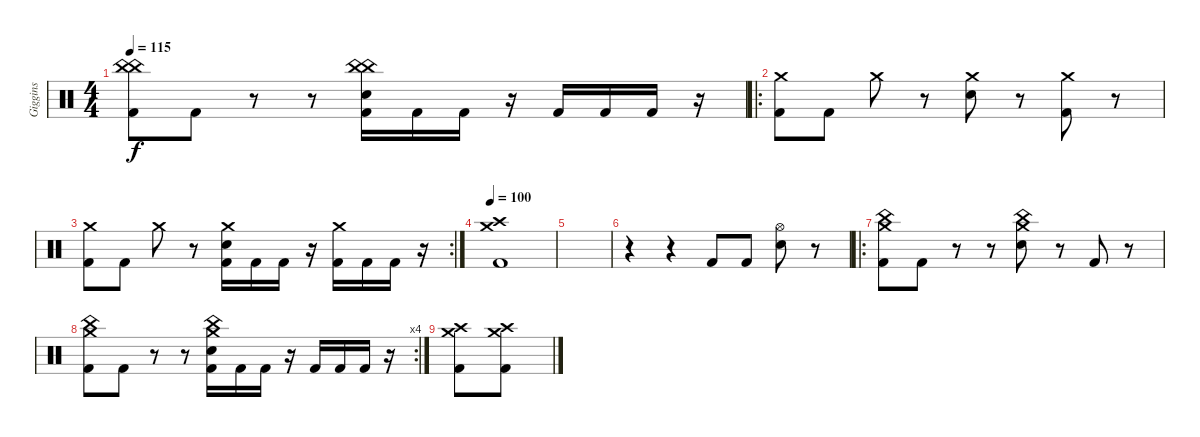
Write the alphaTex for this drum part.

\track ("Giggins" "Giggins") {instrument percussion}
\staff {score}
\articulation defaults
\ts (4 4)
\tempo 115
\clef neutral
\ks c
("China (hit)" "China (hit)" "Kick (hit) 2").8{dy f} "Kick (hit) 2".8 r.8 r.8 ("China (hit)" "China (hit)" "Snare (hit) 2" "Kick (hit) 2").16 "Kick (hit) 2".16 "Kick (hit) 2".16 r.16 "Kick (hit) 2".16 "Kick (hit) 2".16 "Kick (hit) 2".16 r.16 |
\ro
("Crash medium (hit)" "Kick (hit) 2").8 "Kick (hit) 2".8 "Crash medium (hit)".8 r.8 ("Crash medium (hit)" "Snare (hit) 2").8 r.8 ("Crash medium (hit)" "Kick (hit) 2").8 r.8 |
\rc 2
("Crash medium (hit)" "Kick (hit) 2").8 "Kick (hit) 2".8 "Crash medium (hit)".8 r.8 ("Crash medium (hit)" "Snare (hit) 2" "Kick (hit) 2").16 "Kick (hit) 2".16 "Kick (hit) 2".16 r.16 ("Crash medium (hit)" "Kick (hit) 2").16 "Kick (hit) 2".16 "Kick (hit) 2".16 r.16 |
\tempo 100
("Crash high (hit)" "Crash medium (hit)" "Kick (hit) 2").1 |
|
r.4 r.4 "Kick (hit) 2".8 "Kick (hit) 2".8 ("Hi-Hat (open)" "Snare (hit) 2").8 r.8 |
\ro
("China (hit)" "Crash medium (hit)" "Kick (hit) 2").8 "Kick (hit) 2".8 r.8 r.8 ("China (hit)" "Crash medium (hit)" "Snare (hit) 2").8 r.8 "Kick (hit) 2".8 r.8 |
\rc 4
("Crash medium (hit)" "China (hit)" "Kick (hit) 2").8 "Kick (hit) 2".8 r.8 r.8 ("Snare (hit) 2" "Crash medium (hit)" "China (hit)" "Kick (hit) 2").16 "Kick (hit) 2".16 "Kick (hit) 2".16 r.16 "Kick (hit) 2".16 "Kick (hit) 2".16 "Kick (hit) 2".16 r.16 |
("Crash medium (hit)" "Crash high (hit)" "Kick (hit) 2").8 ("Crash medium (hit)" "Crash high (hit)" "Kick (hit) 2").8
